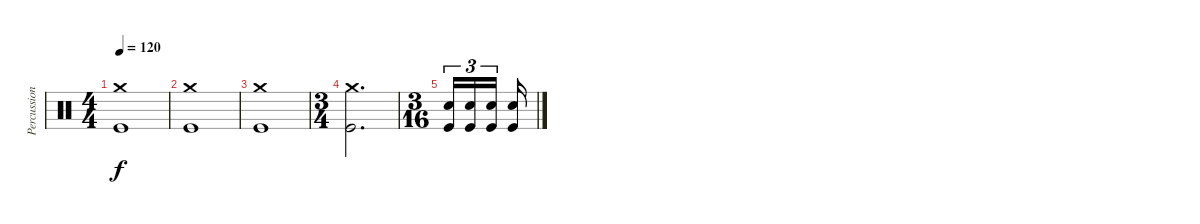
\track ("Percussion" "Percussion") {instrument percussion}
\staff {score}
\articulation defaults
\ts (4 4)
\tempo 120
\clef neutral
\ks c
("Crash medium (hit)" "Kick (hit)").1{dy f} |
("Crash medium (hit)" "Kick (hit)").1 |
("Crash medium (hit)" "Kick (hit)").1 |
\ts (3 4)
("Crash medium (hit)" "Kick (hit)").2{d} |
\ts (3 16)
("Snare (hit) 2" "Kick (hit)").16{tu (3 2)} ("Snare (hit) 2" "Kick (hit)").16{tu (3 2)} ("Snare (hit) 2" "Kick (hit)").16{tu (3 2)} ("Snare (hit) 2" "Kick (hit)").16
